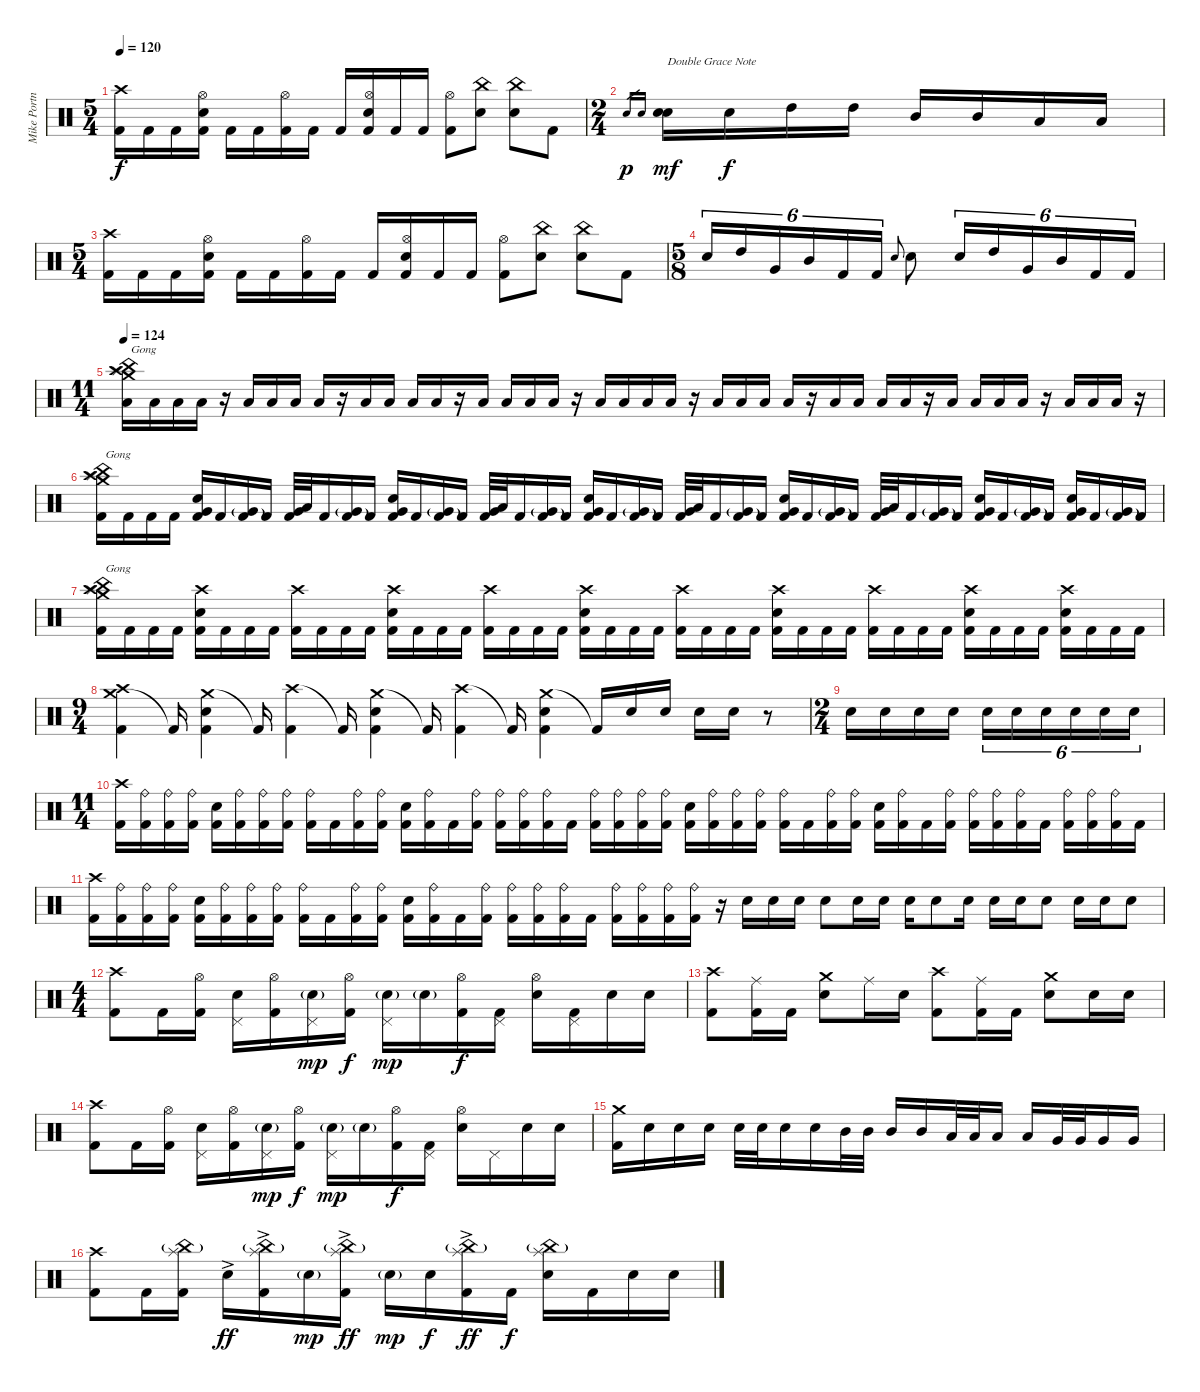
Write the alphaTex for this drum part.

\track ("Mike Portnoy" "Mike Portn") {instrument percussion}
\staff {score}
\articulation defaults
\ts (5 4)
\tempo 120
\clef neutral
\ks c
("Crash high (hit)" "Kick (hit) 2").16{dy f} "Kick (hit) 2".16 "Kick (hit) 2".16 ("Hi-Hat (open)" "Electric Snare (hit)" "Kick (hit) 2").16 "Kick (hit) 2".16 "Kick (hit) 2".16 ("Hi-Hat (open)" "Kick (hit) 2").16 "Kick (hit) 2".16 "Kick (hit) 2".16 ("Hi-Hat (open)" "Electric Snare (hit)" "Kick (hit) 2").16 "Kick (hit) 2".16 "Kick (hit) 2".16 ("Hi-Hat (open)" "Kick (hit) 2").8 ("China (hit)" "Electric Snare (hit)").8 ("China (hit)" "Electric Snare (hit)").8 "Kick (hit) 2".8 |
\ts (2 4)
"Electric Snare (hit)".16{gr dy p} "Electric Snare (hit)".16{gr} ("Electric Snare (hit)" "Electric Snare (hit)").16{txt "Double Grace Note" dy mf} "Electric Snare (hit)".16{dy f} "High Tom (hit)".16 "High Tom (hit)".16 "Mid Tom (hit)".16 "Mid Tom (hit)".16 "Low Tom (hit)".16 "Low Tom (hit)".16 |
\ts (5 4)
("Crash high (hit)" "Kick (hit) 2").16 "Kick (hit) 2".16 "Kick (hit) 2".16 ("Hi-Hat (open)" "Electric Snare (hit)" "Kick (hit) 2").16 "Kick (hit) 2".16 "Kick (hit) 2".16 ("Hi-Hat (open)" "Kick (hit) 2").16 "Kick (hit) 2".16 "Kick (hit) 2".16 ("Hi-Hat (open)" "Electric Snare (hit)" "Kick (hit) 2").16 "Kick (hit) 2".16 "Kick (hit) 2".16 ("Hi-Hat (open)" "Kick (hit) 2").8 ("China (hit)" "Electric Snare (hit)").8 ("China (hit)" "Electric Snare (hit)").8 "Kick (hit) 2".8 |
\ts (5 8)
"Electric Snare (hit)".16{tu (6 4)} "High Tom (hit)".16{tu (6 4)} "Very Low Tom (hit)".16{tu (6 4)} "Mid Tom (hit)".16{tu (6 4)} "Kick (hit) 2".16{tu (6 4)} "Kick (hit) 2".16{tu (6 4)} "Electric Snare (hit)"{h}.8{gr onbeat} "Electric Snare (hit)".8 "Electric Snare (hit)".16{tu (6 4)} "High Tom (hit)".16{tu (6 4)} "Very Low Tom (hit)".16{tu (6 4)} "Mid Tom (hit)".16{tu (6 4)} "Kick (hit) 2".16{tu (6 4)} "Kick (hit) 2".16{tu (6 4)} |
\ts (11 4)
\tempo 124
("China (hit)" "Crash high (hit)" "Low Floor Tom (hit)" "Crash medium (hit)" "Splash (hit)").16{txt "Gong"} "Low Floor Tom (hit)".16 "Low Floor Tom (hit)".16 "Low Floor Tom (hit)".16 r.16 "Low Floor Tom (hit)".16 "Low Floor Tom (hit)".16 "Low Floor Tom (hit)".16 "Low Floor Tom (hit)".16 r.16 "Low Floor Tom (hit)".16 "Low Floor Tom (hit)".16 "Low Floor Tom (hit)".16 "Low Floor Tom (hit)".16 r.16 "Low Floor Tom (hit)".16 "Low Floor Tom (hit)".16 "Low Floor Tom (hit)".16 "Low Floor Tom (hit)".16 r.16 "Low Floor Tom (hit)".16 "Low Floor Tom (hit)".16 "Low Floor Tom (hit)".16 "Low Floor Tom (hit)".16 r.16 "Low Floor Tom (hit)".16 "Low Floor Tom (hit)".16 "Low Floor Tom (hit)".16 "Low Floor Tom (hit)".16 r.16 "Low Floor Tom (hit)".16 "Low Floor Tom (hit)".16 "Low Floor Tom (hit)".16 "Low Floor Tom (hit)".16 r.16 "Low Floor Tom (hit)".16 "Low Floor Tom (hit)".16 "Low Floor Tom (hit)".16 "Low Floor Tom (hit)".16 r.16 "Low Floor Tom (hit)".16 "Low Floor Tom (hit)".16 "Low Floor Tom (hit)".16 r.16 |
("China (hit)" "Crash medium (hit)" "Crash high (hit)" "Splash (hit)" "Kick (hit) 2").16{txt "Gong"} "Kick (hit) 2".16 "Kick (hit) 2".16 "Kick (hit) 2".16 ("Electric Snare (hit)" "Very Low Tom (hit)" "Kick (hit) 2").16 "Kick (hit) 2".16 ("Very Low Tom (hit)"{g} "Kick (hit) 2").16 "Kick (hit) 2".16 ("Very Low Tom (hit)" "Kick (hit) 2").32 "Low Tom (hit)".32 "Kick (hit) 2".16 ("Very Low Tom (hit)"{g} "Kick (hit) 2").16 "Kick (hit) 2".16 ("Electric Snare (hit)" "Very Low Tom (hit)" "Kick (hit) 2").16 "Kick (hit) 2".16 ("Very Low Tom (hit)"{g} "Kick (hit) 2").16 "Kick (hit) 2".16 ("Very Low Tom (hit)" "Kick (hit) 2").32 "Low Tom (hit)".32 "Kick (hit) 2".16 ("Very Low Tom (hit)"{g} "Kick (hit) 2").16 "Kick (hit) 2".16 ("Electric Snare (hit)" "Very Low Tom (hit)" "Kick (hit) 2").16 "Kick (hit) 2".16 ("Very Low Tom (hit)"{g} "Kick (hit) 2").16 "Kick (hit) 2".16 ("Very Low Tom (hit)" "Kick (hit) 2").32 "Low Tom (hit)".32 "Kick (hit) 2".16 ("Very Low Tom (hit)"{g} "Kick (hit) 2").16 "Kick (hit) 2".16 ("Electric Snare (hit)" "Very Low Tom (hit)" "Kick (hit) 2").16 "Kick (hit) 2".16 ("Very Low Tom (hit)"{g} "Kick (hit) 2").16 "Kick (hit) 2".16 ("Very Low Tom (hit)" "Kick (hit) 2").32 "Low Tom (hit)".32 "Kick (hit) 2".16 ("Very Low Tom (hit)"{g} "Kick (hit) 2").16 "Kick (hit) 2".16 ("Electric Snare (hit)" "Very Low Tom (hit)" "Kick (hit) 2").16 "Kick (hit) 2".16 ("Very Low Tom (hit)"{g} "Kick (hit) 2").16 "Kick (hit) 2".16 ("Electric Snare (hit)" "Very Low Tom (hit)" "Kick (hit) 2").16 "Kick (hit) 2".16 ("Very Low Tom (hit)"{g} "Kick (hit) 2").16 "Kick (hit) 2".16 |
("Crash high (hit)" "Crash medium (hit)" "Splash (hit)" "China (hit)" "Kick (hit) 2").16{txt "Gong"} "Kick (hit) 2".16 "Kick (hit) 2".16 "Kick (hit) 2".16 ("Crash high (hit)" "Electric Snare (hit)" "Kick (hit) 2").16 "Kick (hit) 2".16 "Kick (hit) 2".16 "Kick (hit) 2".16 ("Crash high (hit)" "Kick (hit) 2").16 "Kick (hit) 2".16 "Kick (hit) 2".16 "Kick (hit) 2".16 ("Crash high (hit)" "Electric Snare (hit)" "Kick (hit) 2").16 "Kick (hit) 2".16 "Kick (hit) 2".16 "Kick (hit) 2".16 ("Crash high (hit)" "Kick (hit) 2").16 "Kick (hit) 2".16 "Kick (hit) 2".16 "Kick (hit) 2".16 ("Crash high (hit)" "Electric Snare (hit)" "Kick (hit) 2").16 "Kick (hit) 2".16 "Kick (hit) 2".16 "Kick (hit) 2".16 ("Crash high (hit)" "Kick (hit) 2").16 "Kick (hit) 2".16 "Kick (hit) 2".16 "Kick (hit) 2".16 ("Crash high (hit)" "Electric Snare (hit)" "Kick (hit) 2").16 "Kick (hit) 2".16 "Kick (hit) 2".16 "Kick (hit) 2".16 ("Crash high (hit)" "Kick (hit) 2").16 "Kick (hit) 2".16 "Kick (hit) 2".16 "Kick (hit) 2".16 ("Crash high (hit)" "Electric Snare (hit)" "Kick (hit) 2").16 "Kick (hit) 2".16 "Kick (hit) 2".16 "Kick (hit) 2".16 ("Crash high (hit)" "Electric Snare (hit)" "Kick (hit) 2").16 "Kick (hit) 2".16 "Kick (hit) 2".16 "Kick (hit) 2".16 |
\ts (9 4)
("Crash medium (hit)" "Crash high (hit)" "Kick (hit) 2").4 "Kick (hit) 2"{t}.16 ("Crash medium (hit)" "Electric Snare (hit)" "Kick (hit) 2").4 "Kick (hit) 2"{t}.16 ("Crash high (hit)" "Kick (hit) 2").4 "Kick (hit) 2"{t}.16 ("Crash medium (hit)" "Electric Snare (hit)" "Kick (hit) 2").4 "Kick (hit) 2"{t}.16 ("Crash high (hit)" "Kick (hit) 2").4 "Kick (hit) 2"{t}.16 ("Crash medium (hit)" "Electric Snare (hit)" "Kick (hit) 2").4 "Kick (hit) 2"{t}.16 "Electric Snare (hit)".16 "Electric Snare (hit)".16 "Electric Snare (hit)".16 "Electric Snare (hit)".16 r.8 |
\ts (2 4)
"Electric Snare (hit)".16 "Electric Snare (hit)".16 "Electric Snare (hit)".16 "Electric Snare (hit)".16 "Electric Snare (hit)".16{tu (6 4)} "Electric Snare (hit)".16{tu (6 4)} "Electric Snare (hit)".16{tu (6 4)} "Electric Snare (hit)".16{tu (6 4)} "Electric Snare (hit)".16{tu (6 4)} "Electric Snare (hit)".16{tu (6 4)} |
\ts (11 4)
("Crash high (hit)" "Kick (hit) 2").16 ("Ride (bell)" "Kick (hit) 2").16 ("Ride (bell)" "Kick (hit) 2").16 ("Ride (bell)" "Kick (hit) 2").16 ("Electric Snare (hit)" "Kick (hit) 2").16 ("Ride (bell)" "Kick (hit) 2").16 ("Ride (bell)" "Kick (hit) 2").16 ("Ride (bell)" "Kick (hit) 2").16 ("Ride (bell)" "Kick (hit) 2").16 "Kick (hit) 2".16 ("Ride (bell)" "Kick (hit) 2").16 ("Ride (bell)" "Kick (hit) 2").16 ("Electric Snare (hit)" "Kick (hit) 2").16 ("Ride (bell)" "Kick (hit) 2").16 "Kick (hit) 2".16 ("Ride (bell)" "Kick (hit) 2").16 ("Ride (bell)" "Kick (hit) 2").16 ("Ride (bell)" "Kick (hit) 2").16 ("Ride (bell)" "Kick (hit) 2").16 "Kick (hit) 2".16 ("Ride (bell)" "Kick (hit) 2").16 ("Ride (bell)" "Kick (hit) 2").16 ("Ride (bell)" "Kick (hit) 2").16 ("Ride (bell)" "Kick (hit) 2").16 ("Electric Snare (hit)" "Kick (hit) 2").16 ("Ride (bell)" "Kick (hit) 2").16 ("Ride (bell)" "Kick (hit) 2").16 ("Ride (bell)" "Kick (hit) 2").16 ("Ride (bell)" "Kick (hit) 2").16 "Kick (hit) 2".16 ("Ride (bell)" "Kick (hit) 2").16 ("Ride (bell)" "Kick (hit) 2").16 ("Electric Snare (hit)" "Kick (hit) 2").16 ("Ride (bell)" "Kick (hit) 2").16 "Kick (hit) 2".16 ("Ride (bell)" "Kick (hit) 2").16 ("Ride (bell)" "Kick (hit) 2").16 ("Ride (bell)" "Kick (hit) 2").16 ("Ride (bell)" "Kick (hit) 2").16 "Kick (hit) 2".16 ("Ride (bell)" "Kick (hit) 2").16 ("Ride (bell)" "Kick (hit) 2").16 ("Ride (bell)" "Kick (hit) 2").16 "Kick (hit) 2".16 |
("Crash high (hit)" "Kick (hit) 2").16 ("Ride (bell)" "Kick (hit) 2").16 ("Ride (bell)" "Kick (hit) 2").16 ("Ride (bell)" "Kick (hit) 2").16 ("Electric Snare (hit)" "Kick (hit) 2").16 ("Ride (bell)" "Kick (hit) 2").16 ("Ride (bell)" "Kick (hit) 2").16 ("Ride (bell)" "Kick (hit) 2").16 ("Ride (bell)" "Kick (hit) 2").16 "Kick (hit) 2".16 ("Ride (bell)" "Kick (hit) 2").16 ("Ride (bell)" "Kick (hit) 2").16 ("Electric Snare (hit)" "Kick (hit) 2").16 ("Ride (bell)" "Kick (hit) 2").16 "Kick (hit) 2".16 ("Ride (bell)" "Kick (hit) 2").16 ("Ride (bell)" "Kick (hit) 2").16 ("Ride (bell)" "Kick (hit) 2").16 ("Ride (bell)" "Kick (hit) 2").16 "Kick (hit) 2".16 ("Ride (bell)" "Kick (hit) 2").16 ("Ride (bell)" "Kick (hit) 2").16 ("Ride (bell)" "Kick (hit) 2").16 ("Ride (bell)" "Kick (hit) 2").16 r.16 "Electric Snare (hit)".16 "Electric Snare (hit)".16 "Electric Snare (hit)".16 "Electric Snare (hit)".8 "Electric Snare (hit)".16 "Electric Snare (hit)".16 "Electric Snare (hit)".16 "Electric Snare (hit)".8 "Electric Snare (hit)".16 "Electric Snare (hit)".16 "Electric Snare (hit)".16 "Electric Snare (hit)".8 "Electric Snare (hit)".16 "Electric Snare (hit)".16 "Electric Snare (hit)".8 |
\ts (4 4)
("Crash high (hit)" "Kick (hit) 2").8 "Kick (hit) 2".16 ("Hi-Hat (open)" "Kick (hit) 2").16 ("Pedal Hi-Hat (hit)" "Electric Snare (hit)").16 ("Hi-Hat (open)" "Kick (hit) 2").16 ("Pedal Hi-Hat (hit)" "Electric Snare (hit)"{g}).16{dy mp} ("Hi-Hat (open)" "Kick (hit) 2").16{dy f} ("Pedal Hi-Hat (hit)" "Electric Snare (hit)"{g}).16{dy mp} "Electric Snare (hit)"{g}.16 ("Hi-Hat (open)" "Kick (hit) 2").16{dy f} ("Pedal Hi-Hat (hit)" "Kick (hit) 2").16 ("Hi-Hat (open)" "Electric Snare (hit)").16 ("Pedal Hi-Hat (hit)" "Kick (hit) 2").16 "Electric Snare (hit)".16 "Electric Snare (hit)".16 |
("Crash high (hit)" "Kick (hit) 2").8 ("Ride (middle)" "Kick (hit) 2").16 "Kick (hit) 2".16 ("Crash medium (hit)" "Electric Snare (hit)").8 "Ride (middle)".16 "Electric Snare (hit)".16 ("Crash high (hit)" "Kick (hit) 2").8 ("Ride (middle)" "Kick (hit) 2").16 "Kick (hit) 2".16 ("Crash medium (hit)" "Electric Snare (hit)").8 "Electric Snare (hit)".16 "Electric Snare (hit)".16 |
("Crash high (hit)" "Kick (hit) 2").8 "Kick (hit) 2".16 ("Hi-Hat (open)" "Kick (hit) 2").16 ("Pedal Hi-Hat (hit)" "Electric Snare (hit)").16 ("Hi-Hat (open)" "Kick (hit) 2").16 ("Pedal Hi-Hat (hit)" "Electric Snare (hit)"{g}).16{dy mp} ("Hi-Hat (open)" "Kick (hit) 2").16{dy f} ("Pedal Hi-Hat (hit)" "Electric Snare (hit)"{g}).16{dy mp} "Electric Snare (hit)"{g}.16 ("Hi-Hat (open)" "Kick (hit) 2").16{dy f} ("Pedal Hi-Hat (hit)" "Kick (hit) 2").16 ("Hi-Hat (open)" "Electric Snare (hit)").16 "Pedal Hi-Hat (hit)".16 "Electric Snare (hit)".16 "Electric Snare (hit)".16 |
("Crash medium (hit)" "Kick (hit) 2").16 "Electric Snare (hit)".16 "Electric Snare (hit)".16 "Electric Snare (hit)".16 "Electric Snare (hit)".32 "Electric Snare (hit)".32 "Electric Snare (hit)".16 "Electric Snare (hit)".16 "Mid Tom (hit)".32 "Mid Tom (hit)".32 "Mid Tom (hit)".16 "Mid Tom (hit)".16 "Low Tom (hit)".32 "Low Tom (hit)".32 "Low Tom (hit)".16 "Low Tom (hit)".16 "Very Low Tom (hit)".32 "Very Low Tom (hit)".32 "Very Low Tom (hit)".16 "Very Low Tom (hit)".16 |
("Crash high (hit)" "Kick (hit) 2").8 "Kick (hit) 2".16 ("China (hit)"{g} "Splash (hit)" "Kick (hit) 2").16 "Electric Snare (hit)"{ac}.16{dy ff} ("China (hit)"{g} "Splash (hit)"{ac} "Kick (hit) 2"{ac}).16 "Electric Snare (hit)"{g}.16{dy mp} ("China (hit)"{g} "Splash (hit)"{ac} "Kick (hit) 2"{ac}).16{dy ff} "Electric Snare (hit)"{g}.16{dy mp} "Electric Snare (hit)".16{dy f} ("China (hit)"{g} "Splash (hit)"{ac} "Kick (hit) 2"{ac}).16{dy ff} "Kick (hit) 2".16{dy f} ("China (hit)"{g} "Splash (hit)" "Electric Snare (hit)").16 "Kick (hit) 2".16 "Electric Snare (hit)".16 "Electric Snare (hit)".16
